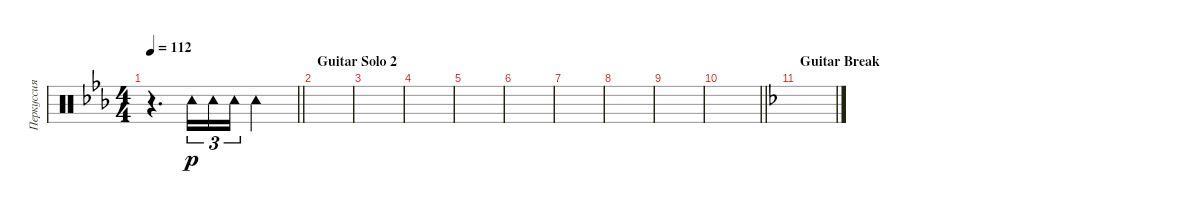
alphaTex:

\track ("Перкуссия" "Перкуссия") {instrument percussion}
\staff {score}
\articulation defaults
\ts (4 4)
\tempo 112
\clef neutral
\barLineRight lightlight
\ks cminor
r.4{d dy p} "Tambourine (hit)".16{tu (3 2)} "Tambourine (hit)".16{tu (3 2)} "Tambourine (hit)".16{tu (3 2)} "Tambourine (hit)".2 |
\section ("" "Guitar Solo 2")
|
|
|
|
|
|
|
|
\barLineRight lightlight
|
\section ("" "Guitar Break")
\ks dminor
